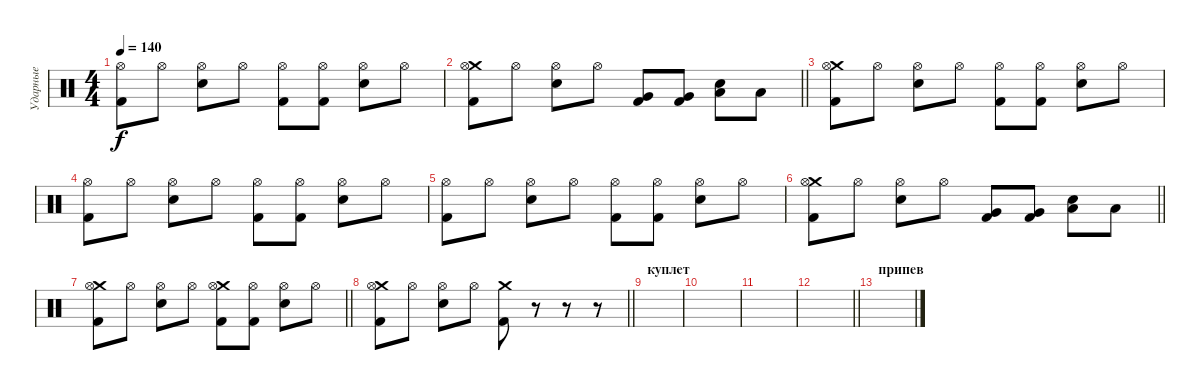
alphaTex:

\track ("Ударные" "Ударные") {instrument percussion}
\staff {score}
\articulation defaults
\ts (4 4)
\tempo 140
\clef neutral
\ks c
("Hi-Hat (open)" "Kick (hit) 2").8{dy f} "Hi-Hat (open)".8 ("Hi-Hat (open)" "Electric Snare (hit)").8 "Hi-Hat (open)".8 ("Hi-Hat (open)" "Kick (hit) 2").8 ("Hi-Hat (open)" "Kick (hit) 2").8 ("Hi-Hat (open)" "Electric Snare (hit)").8 "Hi-Hat (open)".8 |
\barLineRight lightlight
("Crash medium (hit)" "Hi-Hat (open)" "Kick (hit) 2").8 "Hi-Hat (open)".8 ("Hi-Hat (open)" "Electric Snare (hit)").8 "Hi-Hat (open)".8 ("Very Low Tom (hit)" "Kick (hit) 2").8 ("Very Low Tom (hit)" "Kick (hit) 2").8 ("Low Floor Tom (hit)" "Electric Snare (hit)").8 "Low Floor Tom (hit)".8 |
("Crash medium (hit)" "Hi-Hat (open)" "Kick (hit) 2").8 "Hi-Hat (open)".8 ("Hi-Hat (open)" "Electric Snare (hit)").8 "Hi-Hat (open)".8 ("Hi-Hat (open)" "Kick (hit) 2").8 ("Hi-Hat (open)" "Kick (hit) 2").8 ("Hi-Hat (open)" "Electric Snare (hit)").8 "Hi-Hat (open)".8 |
("Hi-Hat (open)" "Kick (hit) 2").8 "Hi-Hat (open)".8 ("Hi-Hat (open)" "Electric Snare (hit)").8 "Hi-Hat (open)".8 ("Hi-Hat (open)" "Kick (hit) 2").8 ("Hi-Hat (open)" "Kick (hit) 2").8 ("Hi-Hat (open)" "Electric Snare (hit)").8 "Hi-Hat (open)".8 |
("Hi-Hat (open)" "Kick (hit) 2").8 "Hi-Hat (open)".8 ("Hi-Hat (open)" "Electric Snare (hit)").8 "Hi-Hat (open)".8 ("Hi-Hat (open)" "Kick (hit) 2").8 ("Hi-Hat (open)" "Kick (hit) 2").8 ("Hi-Hat (open)" "Electric Snare (hit)").8 "Hi-Hat (open)".8 |
\barLineRight lightlight
("Crash medium (hit)" "Hi-Hat (open)" "Kick (hit) 2").8 "Hi-Hat (open)".8 ("Hi-Hat (open)" "Electric Snare (hit)").8 "Hi-Hat (open)".8 ("Very Low Tom (hit)" "Kick (hit) 2").8 ("Very Low Tom (hit)" "Kick (hit) 2").8 ("Low Floor Tom (hit)" "Electric Snare (hit)").8 "Low Floor Tom (hit)".8 |
\barLineRight lightlight
("Crash medium (hit)" "Hi-Hat (open)" "Kick (hit) 2").8 "Hi-Hat (open)".8 ("Hi-Hat (open)" "Electric Snare (hit)").8 "Hi-Hat (open)".8 ("Crash medium (hit)" "Hi-Hat (open)" "Kick (hit) 2").8 ("Hi-Hat (open)" "Kick (hit) 2").8 ("Hi-Hat (open)" "Electric Snare (hit)").8 "Hi-Hat (open)".8 |
\barLineRight lightlight
("Crash medium (hit)" "Hi-Hat (open)" "Kick (hit) 2").8 "Hi-Hat (open)".8 ("Hi-Hat (open)" "Electric Snare (hit)").8 "Hi-Hat (open)".8 ("Crash medium (hit)" "Kick (hit) 2").8 r.8 r.8 r.8 |
\section ("" "куплет")
|
|
|
\barLineRight lightlight
|
\section ("" "припев")
